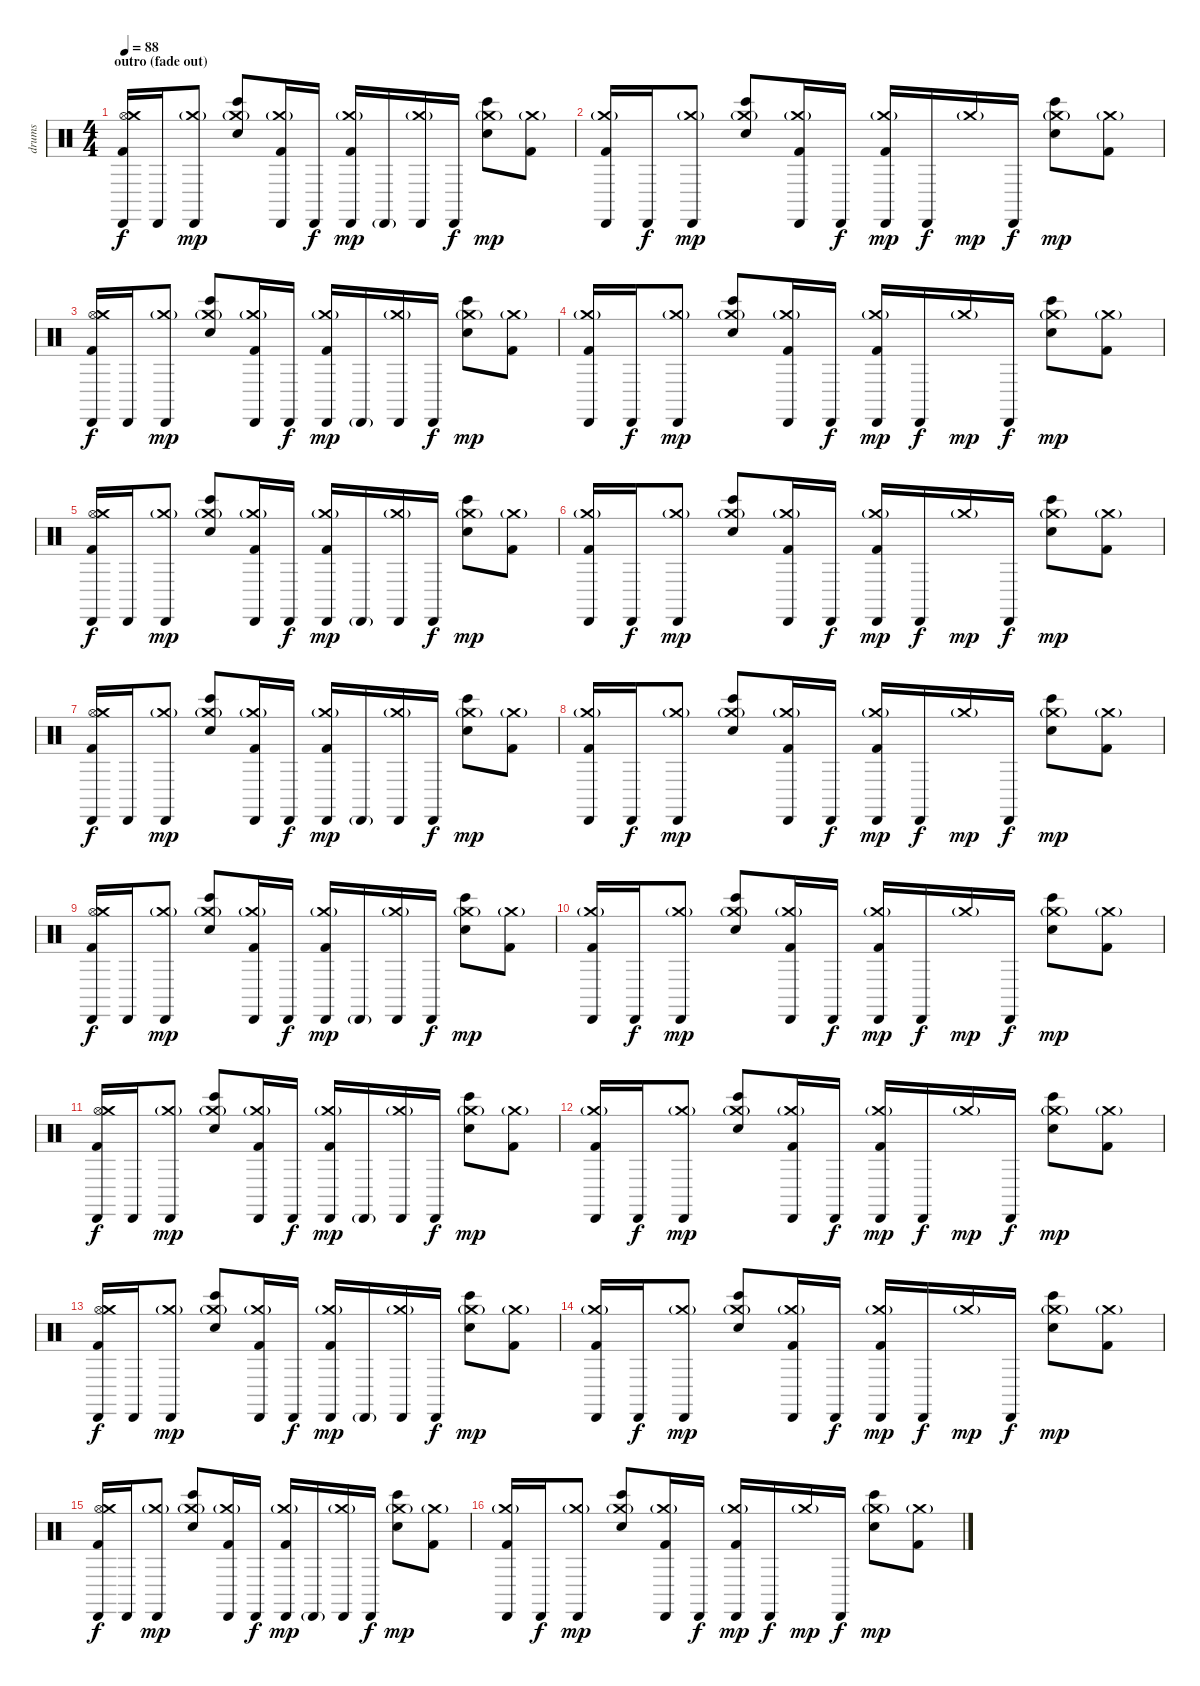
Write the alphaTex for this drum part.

\track ("drums" "drums") {instrument percussion}
\staff {score}
\articulation defaults
\ts (4 4)
\section ("" "outro (fade out)")
\tempo 88
\clef neutral
\ks c
("Cabasa (hit)" "Kick (hit) 2" "Hi-Hat (open)" "Crash medium (hit)").16{dy f} "Cabasa (hit)".16 ("Cabasa (hit)" "Crash medium (hit)"{g}).8{dy mp} ("Hand Clap (hit)" "Bongo High (hit)" "Crash medium (hit)"{g}).8 ("Cabasa (hit)" "Kick (hit) 2" "Crash medium (hit)"{g}).16 "Cabasa (hit)".16{dy f} ("Cabasa (hit)" "Kick (hit) 2" "Crash medium (hit)"{g}).16{dy mp} "Cabasa (hit)"{g}.16 ("Cabasa (hit)" "Crash medium (hit)"{g}).16 "Cabasa (hit)".16{dy f} ("Hand Clap (hit)" "Bongo High (hit)" "Crash medium (hit)"{g}).8{dy mp} ("Kick (hit) 2" "Crash medium (hit)"{g}).8 |
("Cabasa (hit)" "Kick (hit) 2" "Crash medium (hit)"{g}).16 "Cabasa (hit)".16{dy f} ("Cabasa (hit)" "Crash medium (hit)"{g}).8{dy mp} ("Bongo High (hit)" "Hand Clap (hit)" "Crash medium (hit)"{g}).8 ("Cabasa (hit)" "Kick (hit) 2" "Crash medium (hit)"{g}).16 "Cabasa (hit)".16{dy f} ("Cabasa (hit)" "Kick (hit) 2" "Crash medium (hit)"{g}).16{dy mp} "Cabasa (hit)".16{dy f} "Crash medium (hit)"{g}.16{dy mp} "Cabasa (hit)".16{dy f} ("Bongo High (hit)" "Hand Clap (hit)" "Crash medium (hit)"{g}).8{dy mp} ("Kick (hit) 2" "Crash medium (hit)"{g}).8 |
("Cabasa (hit)" "Kick (hit) 2" "Hi-Hat (open)" "Crash medium (hit)").16{dy f} "Cabasa (hit)".16 ("Cabasa (hit)" "Crash medium (hit)"{g}).8{dy mp} ("Hand Clap (hit)" "Bongo High (hit)" "Crash medium (hit)"{g}).8 ("Cabasa (hit)" "Kick (hit) 2" "Crash medium (hit)"{g}).16 "Cabasa (hit)".16{dy f} ("Cabasa (hit)" "Kick (hit) 2" "Crash medium (hit)"{g}).16{dy mp} "Cabasa (hit)"{g}.16 ("Cabasa (hit)" "Crash medium (hit)"{g}).16 "Cabasa (hit)".16{dy f} ("Hand Clap (hit)" "Bongo High (hit)" "Crash medium (hit)"{g}).8{dy mp} ("Kick (hit) 2" "Crash medium (hit)"{g}).8 |
("Cabasa (hit)" "Kick (hit) 2" "Crash medium (hit)"{g}).16 "Cabasa (hit)".16{dy f} ("Cabasa (hit)" "Crash medium (hit)"{g}).8{dy mp} ("Bongo High (hit)" "Hand Clap (hit)" "Crash medium (hit)"{g}).8 ("Cabasa (hit)" "Kick (hit) 2" "Crash medium (hit)"{g}).16 "Cabasa (hit)".16{dy f} ("Cabasa (hit)" "Kick (hit) 2" "Crash medium (hit)"{g}).16{dy mp} "Cabasa (hit)".16{dy f} "Crash medium (hit)"{g}.16{dy mp} "Cabasa (hit)".16{dy f} ("Bongo High (hit)" "Hand Clap (hit)" "Crash medium (hit)"{g}).8{dy mp} ("Kick (hit) 2" "Crash medium (hit)"{g}).8 |
("Cabasa (hit)" "Kick (hit) 2" "Hi-Hat (open)" "Crash medium (hit)").16{dy f} "Cabasa (hit)".16 ("Cabasa (hit)" "Crash medium (hit)"{g}).8{dy mp} ("Hand Clap (hit)" "Bongo High (hit)" "Crash medium (hit)"{g}).8 ("Cabasa (hit)" "Kick (hit) 2" "Crash medium (hit)"{g}).16 "Cabasa (hit)".16{dy f} ("Cabasa (hit)" "Kick (hit) 2" "Crash medium (hit)"{g}).16{dy mp} "Cabasa (hit)"{g}.16 ("Cabasa (hit)" "Crash medium (hit)"{g}).16 "Cabasa (hit)".16{dy f} ("Hand Clap (hit)" "Bongo High (hit)" "Crash medium (hit)"{g}).8{dy mp} ("Kick (hit) 2" "Crash medium (hit)"{g}).8 |
("Cabasa (hit)" "Kick (hit) 2" "Crash medium (hit)"{g}).16 "Cabasa (hit)".16{dy f} ("Cabasa (hit)" "Crash medium (hit)"{g}).8{dy mp} ("Bongo High (hit)" "Hand Clap (hit)" "Crash medium (hit)"{g}).8 ("Cabasa (hit)" "Kick (hit) 2" "Crash medium (hit)"{g}).16 "Cabasa (hit)".16{dy f} ("Cabasa (hit)" "Kick (hit) 2" "Crash medium (hit)"{g}).16{dy mp} "Cabasa (hit)".16{dy f} "Crash medium (hit)"{g}.16{dy mp} "Cabasa (hit)".16{dy f} ("Bongo High (hit)" "Hand Clap (hit)" "Crash medium (hit)"{g}).8{dy mp} ("Kick (hit) 2" "Crash medium (hit)"{g}).8 |
("Cabasa (hit)" "Kick (hit) 2" "Hi-Hat (open)" "Crash medium (hit)").16{dy f} "Cabasa (hit)".16 ("Cabasa (hit)" "Crash medium (hit)"{g}).8{dy mp} ("Hand Clap (hit)" "Bongo High (hit)" "Crash medium (hit)"{g}).8 ("Cabasa (hit)" "Kick (hit) 2" "Crash medium (hit)"{g}).16 "Cabasa (hit)".16{dy f} ("Cabasa (hit)" "Kick (hit) 2" "Crash medium (hit)"{g}).16{dy mp} "Cabasa (hit)"{g}.16 ("Cabasa (hit)" "Crash medium (hit)"{g}).16 "Cabasa (hit)".16{dy f} ("Hand Clap (hit)" "Bongo High (hit)" "Crash medium (hit)"{g}).8{dy mp} ("Kick (hit) 2" "Crash medium (hit)"{g}).8 |
("Cabasa (hit)" "Kick (hit) 2" "Crash medium (hit)"{g}).16 "Cabasa (hit)".16{dy f} ("Cabasa (hit)" "Crash medium (hit)"{g}).8{dy mp} ("Bongo High (hit)" "Hand Clap (hit)" "Crash medium (hit)"{g}).8 ("Cabasa (hit)" "Kick (hit) 2" "Crash medium (hit)"{g}).16 "Cabasa (hit)".16{dy f} ("Cabasa (hit)" "Kick (hit) 2" "Crash medium (hit)"{g}).16{dy mp} "Cabasa (hit)".16{dy f} "Crash medium (hit)"{g}.16{dy mp} "Cabasa (hit)".16{dy f} ("Bongo High (hit)" "Hand Clap (hit)" "Crash medium (hit)"{g}).8{dy mp} ("Kick (hit) 2" "Crash medium (hit)"{g}).8 |
("Cabasa (hit)" "Kick (hit) 2" "Hi-Hat (open)" "Crash medium (hit)").16{dy f} "Cabasa (hit)".16 ("Cabasa (hit)" "Crash medium (hit)"{g}).8{dy mp} ("Hand Clap (hit)" "Bongo High (hit)" "Crash medium (hit)"{g}).8 ("Cabasa (hit)" "Kick (hit) 2" "Crash medium (hit)"{g}).16 "Cabasa (hit)".16{dy f} ("Cabasa (hit)" "Kick (hit) 2" "Crash medium (hit)"{g}).16{dy mp} "Cabasa (hit)"{g}.16 ("Cabasa (hit)" "Crash medium (hit)"{g}).16 "Cabasa (hit)".16{dy f} ("Hand Clap (hit)" "Bongo High (hit)" "Crash medium (hit)"{g}).8{dy mp} ("Kick (hit) 2" "Crash medium (hit)"{g}).8 |
("Cabasa (hit)" "Kick (hit) 2" "Crash medium (hit)"{g}).16 "Cabasa (hit)".16{dy f} ("Cabasa (hit)" "Crash medium (hit)"{g}).8{dy mp} ("Bongo High (hit)" "Hand Clap (hit)" "Crash medium (hit)"{g}).8 ("Cabasa (hit)" "Kick (hit) 2" "Crash medium (hit)"{g}).16 "Cabasa (hit)".16{dy f} ("Cabasa (hit)" "Kick (hit) 2" "Crash medium (hit)"{g}).16{dy mp} "Cabasa (hit)".16{dy f} "Crash medium (hit)"{g}.16{dy mp} "Cabasa (hit)".16{dy f} ("Bongo High (hit)" "Hand Clap (hit)" "Crash medium (hit)"{g}).8{dy mp} ("Kick (hit) 2" "Crash medium (hit)"{g}).8 |
("Cabasa (hit)" "Kick (hit) 2" "Hi-Hat (open)" "Crash medium (hit)").16{dy f volume 11} "Cabasa (hit)".16 ("Cabasa (hit)" "Crash medium (hit)"{g}).8{dy mp} ("Hand Clap (hit)" "Bongo High (hit)" "Crash medium (hit)"{g}).8 ("Cabasa (hit)" "Kick (hit) 2" "Crash medium (hit)"{g}).16 "Cabasa (hit)".16{dy f} ("Cabasa (hit)" "Kick (hit) 2" "Crash medium (hit)"{g}).16{dy mp} "Cabasa (hit)"{g}.16 ("Cabasa (hit)" "Crash medium (hit)"{g}).16 "Cabasa (hit)".16{dy f} ("Hand Clap (hit)" "Bongo High (hit)" "Crash medium (hit)"{g}).8{dy mp} ("Kick (hit) 2" "Crash medium (hit)"{g}).8 |
("Cabasa (hit)" "Kick (hit) 2" "Crash medium (hit)"{g}).16 "Cabasa (hit)".16{dy f} ("Cabasa (hit)" "Crash medium (hit)"{g}).8{dy mp} ("Bongo High (hit)" "Hand Clap (hit)" "Crash medium (hit)"{g}).8 ("Cabasa (hit)" "Kick (hit) 2" "Crash medium (hit)"{g}).16 "Cabasa (hit)".16{dy f} ("Cabasa (hit)" "Kick (hit) 2" "Crash medium (hit)"{g}).16{dy mp} "Cabasa (hit)".16{dy f} "Crash medium (hit)"{g}.16{dy mp} "Cabasa (hit)".16{dy f} ("Bongo High (hit)" "Hand Clap (hit)" "Crash medium (hit)"{g}).8{dy mp} ("Kick (hit) 2" "Crash medium (hit)"{g}).8 |
("Cabasa (hit)" "Kick (hit) 2" "Hi-Hat (open)" "Crash medium (hit)").16{dy f volume 6} "Cabasa (hit)".16 ("Cabasa (hit)" "Crash medium (hit)"{g}).8{dy mp} ("Hand Clap (hit)" "Bongo High (hit)" "Crash medium (hit)"{g}).8 ("Cabasa (hit)" "Kick (hit) 2" "Crash medium (hit)"{g}).16 "Cabasa (hit)".16{dy f} ("Cabasa (hit)" "Kick (hit) 2" "Crash medium (hit)"{g}).16{dy mp} "Cabasa (hit)"{g}.16 ("Cabasa (hit)" "Crash medium (hit)"{g}).16 "Cabasa (hit)".16{dy f} ("Hand Clap (hit)" "Bongo High (hit)" "Crash medium (hit)"{g}).8{dy mp} ("Kick (hit) 2" "Crash medium (hit)"{g}).8 |
("Cabasa (hit)" "Kick (hit) 2" "Crash medium (hit)"{g}).16 "Cabasa (hit)".16{dy f} ("Cabasa (hit)" "Crash medium (hit)"{g}).8{dy mp} ("Bongo High (hit)" "Hand Clap (hit)" "Crash medium (hit)"{g}).8 ("Cabasa (hit)" "Kick (hit) 2" "Crash medium (hit)"{g}).16 "Cabasa (hit)".16{dy f} ("Cabasa (hit)" "Kick (hit) 2" "Crash medium (hit)"{g}).16{dy mp} "Cabasa (hit)".16{dy f} "Crash medium (hit)"{g}.16{dy mp} "Cabasa (hit)".16{dy f} ("Bongo High (hit)" "Hand Clap (hit)" "Crash medium (hit)"{g}).8{dy mp} ("Kick (hit) 2" "Crash medium (hit)"{g}).8 |
("Cabasa (hit)" "Kick (hit) 2" "Hi-Hat (open)" "Crash medium (hit)").16{dy f volume 0} "Cabasa (hit)".16 ("Cabasa (hit)" "Crash medium (hit)"{g}).8{dy mp} ("Hand Clap (hit)" "Bongo High (hit)" "Crash medium (hit)"{g}).8 ("Cabasa (hit)" "Kick (hit) 2" "Crash medium (hit)"{g}).16 "Cabasa (hit)".16{dy f} ("Cabasa (hit)" "Kick (hit) 2" "Crash medium (hit)"{g}).16{dy mp} "Cabasa (hit)"{g}.16 ("Cabasa (hit)" "Crash medium (hit)"{g}).16 "Cabasa (hit)".16{dy f} ("Hand Clap (hit)" "Bongo High (hit)" "Crash medium (hit)"{g}).8{dy mp} ("Kick (hit) 2" "Crash medium (hit)"{g}).8 |
("Cabasa (hit)" "Kick (hit) 2" "Crash medium (hit)"{g}).16 "Cabasa (hit)".16{dy f} ("Cabasa (hit)" "Crash medium (hit)"{g}).8{dy mp} ("Bongo High (hit)" "Hand Clap (hit)" "Crash medium (hit)"{g}).8 ("Cabasa (hit)" "Kick (hit) 2" "Crash medium (hit)"{g}).16 "Cabasa (hit)".16{dy f} ("Cabasa (hit)" "Kick (hit) 2" "Crash medium (hit)"{g}).16{dy mp} "Cabasa (hit)".16{dy f} "Crash medium (hit)"{g}.16{dy mp} "Cabasa (hit)".16{dy f} ("Bongo High (hit)" "Hand Clap (hit)" "Crash medium (hit)"{g}).8{dy mp} ("Kick (hit) 2" "Crash medium (hit)"{g}).8
